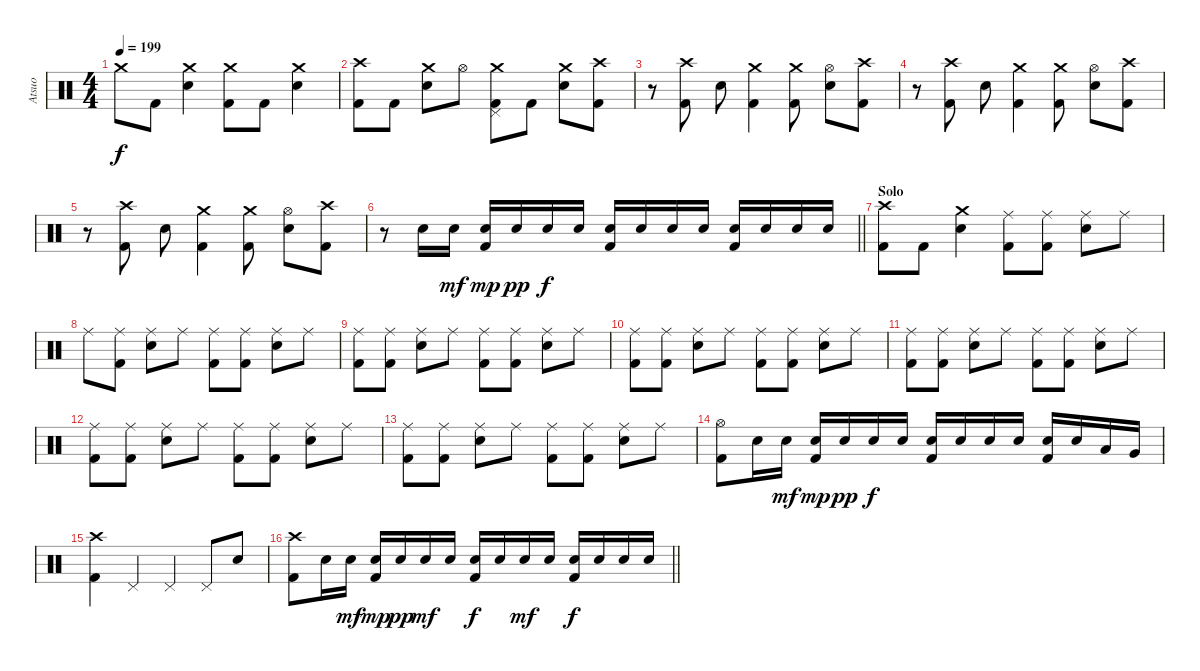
\track ("Atsuo" "Atsuo") {instrument percussion}
\staff {score}
\articulation defaults
\ts (4 4)
\tempo 199
\clef neutral
\ks c "Crash medium (hit)".8{dy f} "Kick (hit) 2".8
("Crash medium (hit)" "Electric Snare (hit)").4 ("Crash medium (hit)" "Kick (hit) 2").8 "Kick (hit) 2".8 ("Crash medium (hit)" "Electric Snare (hit)").4 |
("Crash high (hit)" "Kick (hit) 2").8 "Kick (hit) 2".8 ("Crash medium (hit)" "Electric Snare (hit)").8 "Hi-Hat (open)".8 ("Pedal Hi-Hat (hit)" "Crash medium (hit)" "Kick (hit) 2").8 "Kick (hit) 2".8 ("Crash medium (hit)" "Electric Snare (hit)").8 ("Crash high (hit)" "Kick (hit) 2").8 |
r.8 ("Crash high (hit)" "Kick (hit) 2").8 "Electric Snare (hit)".8 ("Crash medium (hit)" "Kick (hit) 2").4 ("Crash medium (hit)" "Kick (hit) 2").8 ("Hi-Hat (open)" "Electric Snare (hit)").8 ("Crash high (hit)" "Kick (hit) 2").8 |
r.8 ("Crash high (hit)" "Kick (hit) 2").8 "Electric Snare (hit)".8 ("Crash medium (hit)" "Kick (hit) 2").4 ("Crash medium (hit)" "Kick (hit) 2").8 ("Hi-Hat (open)" "Electric Snare (hit)").8 ("Crash high (hit)" "Kick (hit) 2").8 |
r.8 ("Crash high (hit)" "Kick (hit) 2").8 "Electric Snare (hit)".8 ("Crash medium (hit)" "Kick (hit) 2").4 ("Crash medium (hit)" "Kick (hit) 2").8 ("Hi-Hat (open)" "Electric Snare (hit)").8 ("Crash high (hit)" "Kick (hit) 2").8 |
\barLineRight lightlight
r.8 "Electric Snare (hit)".16 "Electric Snare (hit)".16{dy mf} ("Electric Snare (hit)" "Kick (hit) 2").16{dy mp} "Electric Snare (hit)".16{dy pp} "Electric Snare (hit)".16{dy f} "Electric Snare (hit)".16 ("Electric Snare (hit)" "Kick (hit) 2").16 "Electric Snare (hit)".16 "Electric Snare (hit)".16 "Electric Snare (hit)".16 ("Electric Snare (hit)" "Kick (hit) 2").16 "Electric Snare (hit)".16 "Electric Snare (hit)".16 "Electric Snare (hit)".16 |
\section ("" "Solo")
("Crash high (hit)" "Kick (hit) 2").8 "Kick (hit) 2".8 ("Crash medium (hit)" "Electric Snare (hit)").4 ("Ride (middle)" "Kick (hit) 2").8 ("Ride (middle)" "Kick (hit) 2").8 ("Ride (middle)" "Electric Snare (hit)").8 "Ride (middle)".8 |
"Ride (middle)".8 ("Ride (middle)" "Kick (hit) 2").8 ("Ride (middle)" "Electric Snare (hit)").8 "Ride (middle)".8 ("Ride (middle)" "Kick (hit) 2").8 ("Ride (middle)" "Kick (hit) 2").8 ("Ride (middle)" "Electric Snare (hit)").8 "Ride (middle)".8 |
("Ride (middle)" "Kick (hit) 2").8 ("Ride (middle)" "Kick (hit) 2").8 ("Ride (middle)" "Electric Snare (hit)").8 "Ride (middle)".8 ("Ride (middle)" "Kick (hit) 2").8 ("Ride (middle)" "Kick (hit) 2").8 ("Ride (middle)" "Electric Snare (hit)").8 "Ride (middle)".8 |
("Ride (middle)" "Kick (hit) 2").8 ("Ride (middle)" "Kick (hit) 2").8 ("Ride (middle)" "Electric Snare (hit)").8 "Ride (middle)".8 ("Ride (middle)" "Kick (hit) 2").8 ("Ride (middle)" "Kick (hit) 2").8 ("Ride (middle)" "Electric Snare (hit)").8 "Ride (middle)".8 |
("Ride (middle)" "Kick (hit) 2").8 ("Ride (middle)" "Kick (hit) 2").8 ("Ride (middle)" "Electric Snare (hit)").8 "Ride (middle)".8 ("Ride (middle)" "Kick (hit) 2").8 ("Ride (middle)" "Kick (hit) 2").8 ("Ride (middle)" "Electric Snare (hit)").8 "Ride (middle)".8 |
("Ride (middle)" "Kick (hit) 2").8 ("Ride (middle)" "Kick (hit) 2").8 ("Ride (middle)" "Electric Snare (hit)").8 "Ride (middle)".8 ("Ride (middle)" "Kick (hit) 2").8 ("Ride (middle)" "Kick (hit) 2").8 ("Ride (middle)" "Electric Snare (hit)").8 "Ride (middle)".8 |
("Ride (middle)" "Kick (hit) 2").8 ("Ride (middle)" "Kick (hit) 2").8 ("Ride (middle)" "Electric Snare (hit)").8 "Ride (middle)".8 ("Ride (middle)" "Kick (hit) 2").8 ("Ride (middle)" "Kick (hit) 2").8 ("Ride (middle)" "Electric Snare (hit)").8 "Ride (middle)".8 |
("Hi-Hat (open)" "Kick (hit) 2").8 "Electric Snare (hit)".16 "Electric Snare (hit)".16{dy mf} ("Electric Snare (hit)" "Kick (hit) 2").16{dy mp} "Electric Snare (hit)".16{dy pp} "Electric Snare (hit)".16{dy f} "Electric Snare (hit)".16 ("Electric Snare (hit)" "Kick (hit) 2").16 "Electric Snare (hit)".16 "Electric Snare (hit)".16 "Electric Snare (hit)".16 ("Electric Snare (hit)" "Kick (hit) 2").16 "Electric Snare (hit)".16 "Low Tom (hit)".16 "Very Low Tom (hit)".16 |
("Crash high (hit)" "Kick (hit) 2").4 "Pedal Hi-Hat (hit)".4 "Pedal Hi-Hat (hit)".4 "Pedal Hi-Hat (hit)".8 "Electric Snare (hit)".8 |
\barLineRight lightlight
("Crash high (hit)" "Kick (hit) 2").8 "Electric Snare (hit)".16 "Electric Snare (hit)".16{dy mf} ("Electric Snare (hit)" "Kick (hit) 2").16{dy mp} "Electric Snare (hit)".16{dy pp} "Electric Snare (hit)".16{dy mf} "Electric Snare (hit)".16 ("Electric Snare (hit)" "Kick (hit) 2").16{dy f} "Electric Snare (hit)".16 "Electric Snare (hit)".16{dy mf} "Electric Snare (hit)".16 ("Electric Snare (hit)" "Kick (hit) 2").16{dy f} "Electric Snare (hit)".16 "Electric Snare (hit)".16 "Electric Snare (hit)".16
